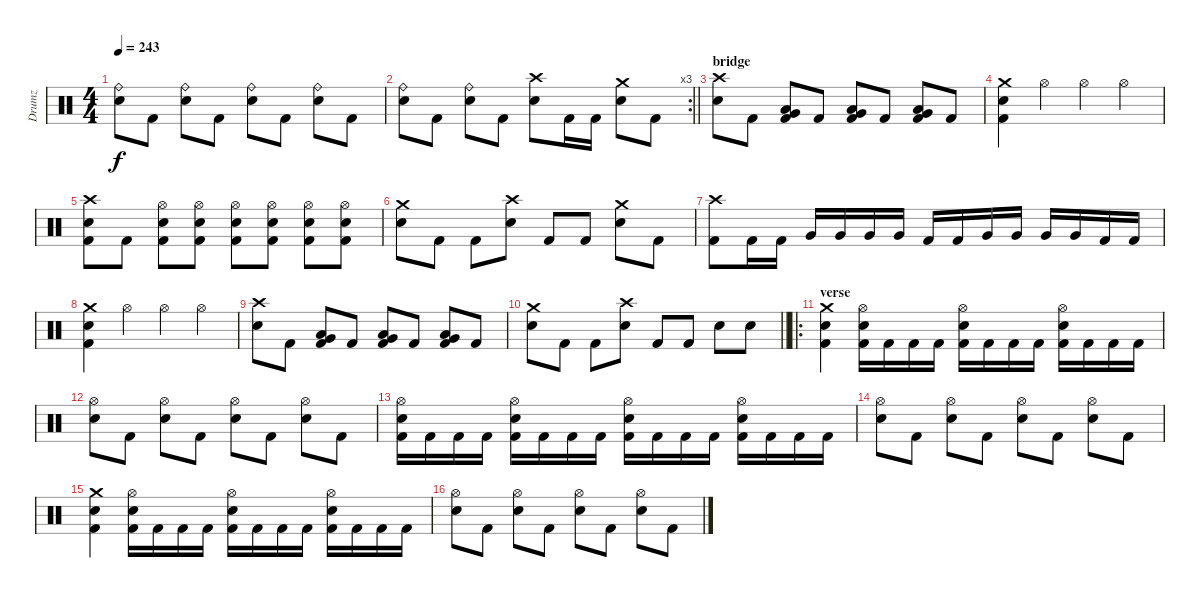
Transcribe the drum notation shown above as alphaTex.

\track ("Drumz" "Drumz") {instrument percussion}
\staff {score}
\articulation defaults
\ts (4 4)
\tempo 243
\clef neutral
\ks c
("Ride (bell)" "Electric Snare (hit)").8{dy f} "Kick (hit) 2".8 ("Ride (bell)" "Electric Snare (hit)").8 "Kick (hit) 2".8 ("Ride (bell)" "Electric Snare (hit)").8 "Kick (hit) 2".8 ("Ride (bell)" "Electric Snare (hit)").8 "Kick (hit) 2".8 |
\rc 3
\barLineRight lightlight
("Ride (bell)" "Electric Snare (hit)").8 "Kick (hit) 2".8 ("Ride (bell)" "Electric Snare (hit)").8 "Kick (hit) 2".8 ("Crash high (hit)" "Electric Snare (hit)").8 "Kick (hit) 2".16 "Kick (hit) 2".16 ("Crash medium (hit)" "Electric Snare (hit)").8 "Kick (hit) 2".8 |
\section ("" "bridge")
("Crash high (hit)" "Electric Snare (hit)").8 "Kick (hit) 2".8 ("Low Tom (hit)" "Very Low Tom (hit)" "Kick (hit) 2").8 "Kick (hit) 2".8 ("Low Tom (hit)" "Very Low Tom (hit)" "Kick (hit) 2").8 "Kick (hit) 2".8 ("Low Tom (hit)" "Very Low Tom (hit)" "Kick (hit) 2").8 "Kick (hit) 2".8 |
("Crash medium (hit)" "Electric Snare (hit)" "Kick (hit) 2").4 "Hi-Hat (open)".4 "Hi-Hat (open)".4 "Hi-Hat (open)".4 |
("Crash high (hit)" "Electric Snare (hit)" "Kick (hit) 2").8 "Kick (hit) 2".8 ("Hi-Hat (open)" "Electric Snare (hit)" "Kick (hit) 2").8 ("Hi-Hat (open)" "Electric Snare (hit)" "Kick (hit) 2").8 ("Hi-Hat (open)" "Electric Snare (hit)" "Kick (hit) 2").8 ("Hi-Hat (open)" "Electric Snare (hit)" "Kick (hit) 2").8 ("Hi-Hat (open)" "Electric Snare (hit)" "Kick (hit) 2").8 ("Hi-Hat (open)" "Electric Snare (hit)" "Kick (hit) 2").8 |
("Crash medium (hit)" "Electric Snare (hit)").8 "Kick (hit) 2".8 "Kick (hit) 2".8 ("Crash high (hit)" "Electric Snare (hit)").8 "Kick (hit) 2".8 "Kick (hit) 2".8 ("Crash medium (hit)" "Electric Snare (hit)").8 "Kick (hit) 2".8 |
("Crash high (hit)" "Kick (hit) 2").8 "Kick (hit) 2".16 "Kick (hit) 2".16 "Very Low Tom (hit)".16 "Very Low Tom (hit)".16 "Very Low Tom (hit)".16 "Very Low Tom (hit)".16 "Kick (hit) 2".16 "Kick (hit) 2".16 "Very Low Tom (hit)".16 "Very Low Tom (hit)".16 "Very Low Tom (hit)".16 "Very Low Tom (hit)".16 "Kick (hit) 2".16 "Kick (hit) 2".16 |
("Crash medium (hit)" "Electric Snare (hit)" "Kick (hit) 2").4 "Hi-Hat (open)".4 "Hi-Hat (open)".4 "Hi-Hat (open)".4 |
("Crash high (hit)" "Electric Snare (hit)").8 "Kick (hit) 2".8 ("Low Tom (hit)" "Very Low Tom (hit)" "Kick (hit) 2").8 "Kick (hit) 2".8 ("Low Tom (hit)" "Very Low Tom (hit)" "Kick (hit) 2").8 "Kick (hit) 2".8 ("Low Tom (hit)" "Very Low Tom (hit)" "Kick (hit) 2").8 "Kick (hit) 2".8 |
\barLineRight lightlight
("Crash medium (hit)" "Electric Snare (hit)").8 "Kick (hit) 2".8 "Kick (hit) 2".8 ("Crash high (hit)" "Electric Snare (hit)").8 "Kick (hit) 2".8 "Kick (hit) 2".8 "Electric Snare (hit)".8 "Electric Snare (hit)".8 |
\ro
\section ("" "verse")
("Crash medium (hit)" "Electric Snare (hit)" "Kick (hit) 2").4 ("Hi-Hat (open)" "Electric Snare (hit)" "Kick (hit) 2").16 "Kick (hit) 2".16 "Kick (hit) 2".16 "Kick (hit) 2".16 ("Hi-Hat (open)" "Electric Snare (hit)" "Kick (hit) 2").16 "Kick (hit) 2".16 "Kick (hit) 2".16 "Kick (hit) 2".16 ("Hi-Hat (open)" "Electric Snare (hit)" "Kick (hit) 2").16 "Kick (hit) 2".16 "Kick (hit) 2".16 "Kick (hit) 2".16 |
("Hi-Hat (open)" "Electric Snare (hit)").8 "Kick (hit) 2".8 ("Hi-Hat (open)" "Electric Snare (hit)").8 "Kick (hit) 2".8 ("Hi-Hat (open)" "Electric Snare (hit)").8 "Kick (hit) 2".8 ("Hi-Hat (open)" "Electric Snare (hit)").8 "Kick (hit) 2".8 |
("Hi-Hat (open)" "Electric Snare (hit)" "Kick (hit) 2").16 "Kick (hit) 2".16 "Kick (hit) 2".16 "Kick (hit) 2".16 ("Hi-Hat (open)" "Electric Snare (hit)" "Kick (hit) 2").16 "Kick (hit) 2".16 "Kick (hit) 2".16 "Kick (hit) 2".16 ("Hi-Hat (open)" "Electric Snare (hit)" "Kick (hit) 2").16 "Kick (hit) 2".16 "Kick (hit) 2".16 "Kick (hit) 2".16 ("Hi-Hat (open)" "Electric Snare (hit)" "Kick (hit) 2").16 "Kick (hit) 2".16 "Kick (hit) 2".16 "Kick (hit) 2".16 |
("Hi-Hat (open)" "Electric Snare (hit)").8 "Kick (hit) 2".8 ("Hi-Hat (open)" "Electric Snare (hit)").8 "Kick (hit) 2".8 ("Hi-Hat (open)" "Electric Snare (hit)").8 "Kick (hit) 2".8 ("Hi-Hat (open)" "Electric Snare (hit)").8 "Kick (hit) 2".8 |
("Crash medium (hit)" "Electric Snare (hit)" "Kick (hit) 2").4 ("Hi-Hat (open)" "Electric Snare (hit)" "Kick (hit) 2").16 "Kick (hit) 2".16 "Kick (hit) 2".16 "Kick (hit) 2".16 ("Hi-Hat (open)" "Electric Snare (hit)" "Kick (hit) 2").16 "Kick (hit) 2".16 "Kick (hit) 2".16 "Kick (hit) 2".16 ("Hi-Hat (open)" "Electric Snare (hit)" "Kick (hit) 2").16 "Kick (hit) 2".16 "Kick (hit) 2".16 "Kick (hit) 2".16 |
("Hi-Hat (open)" "Electric Snare (hit)").8 "Kick (hit) 2".8 ("Hi-Hat (open)" "Electric Snare (hit)").8 "Kick (hit) 2".8 ("Hi-Hat (open)" "Electric Snare (hit)").8 "Kick (hit) 2".8 ("Hi-Hat (open)" "Electric Snare (hit)").8 "Kick (hit) 2".8
